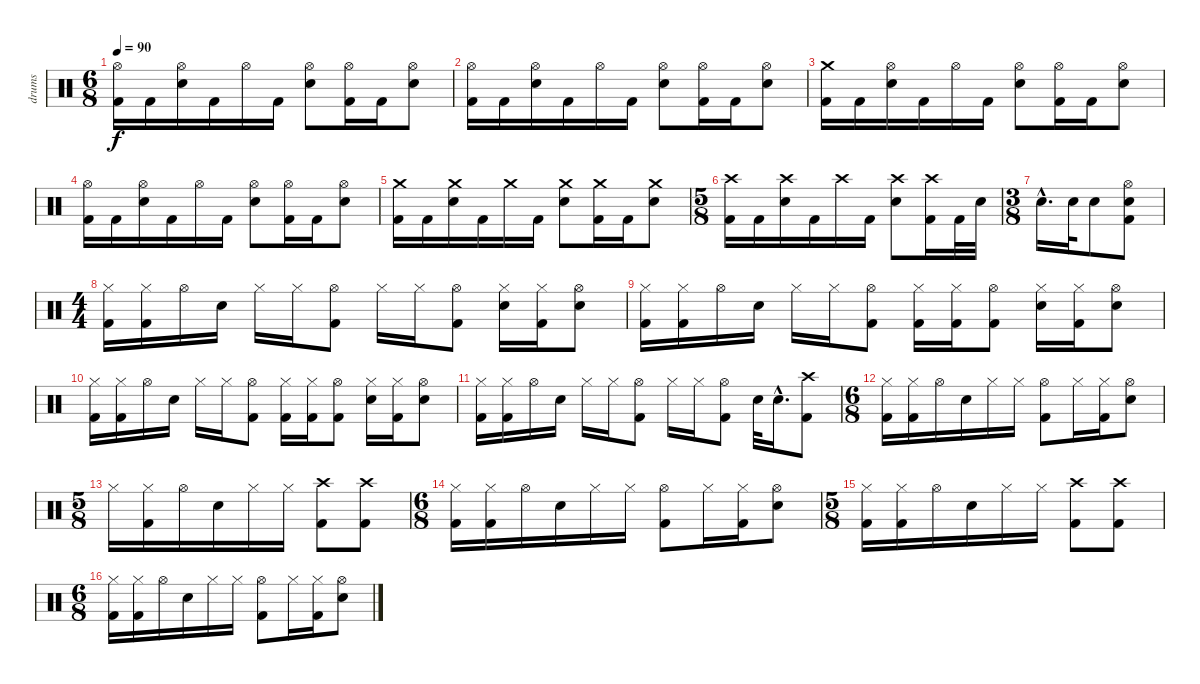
\track ("drums" "drums") {instrument percussion}
\staff {score}
\articulation defaults
\ts (6 8)
\tempo 90
\clef neutral
\ks c
("Hi-Hat (open)" "Kick (hit) 2").16{dy f} "Kick (hit) 2".16 ("Hi-Hat (open)" "Electric Snare (hit)").16 "Kick (hit) 2".16 "Hi-Hat (open)".16 "Kick (hit) 2".16 ("Hi-Hat (open)" "Electric Snare (hit)").8 ("Hi-Hat (open)" "Kick (hit) 2").16 "Kick (hit) 2".16 ("Hi-Hat (open)" "Electric Snare (hit)").8 |
("Hi-Hat (open)" "Kick (hit) 2").16 "Kick (hit) 2".16 ("Hi-Hat (open)" "Electric Snare (hit)").16 "Kick (hit) 2".16 "Hi-Hat (open)".16 "Kick (hit) 2".16 ("Hi-Hat (open)" "Electric Snare (hit)").8 ("Hi-Hat (open)" "Kick (hit) 2").16 "Kick (hit) 2".16 ("Hi-Hat (open)" "Electric Snare (hit)").8 |
("Crash medium (hit)" "Kick (hit) 2").16 "Kick (hit) 2".16 ("Hi-Hat (open)" "Electric Snare (hit)").16 "Kick (hit) 2".16 "Hi-Hat (open)".16 "Kick (hit) 2".16 ("Hi-Hat (open)" "Electric Snare (hit)").8 ("Hi-Hat (open)" "Kick (hit) 2").16 "Kick (hit) 2".16 ("Hi-Hat (open)" "Electric Snare (hit)").8 |
("Hi-Hat (open)" "Kick (hit) 2").16 "Kick (hit) 2".16 ("Hi-Hat (open)" "Electric Snare (hit)").16 "Kick (hit) 2".16 "Hi-Hat (open)".16 "Kick (hit) 2".16 ("Hi-Hat (open)" "Electric Snare (hit)").8 ("Hi-Hat (open)" "Kick (hit) 2").16 "Kick (hit) 2".16 ("Hi-Hat (open)" "Electric Snare (hit)").8 |
("Crash medium (hit)" "Kick (hit) 2").16 "Kick (hit) 2".16 ("Crash medium (hit)" "Electric Snare (hit)").16 "Kick (hit) 2".16 "Crash medium (hit)".16 "Kick (hit) 2".16 ("Crash medium (hit)" "Electric Snare (hit)").8 ("Crash medium (hit)" "Kick (hit) 2").16 "Kick (hit) 2".16 ("Crash medium (hit)" "Electric Snare (hit)").8 |
\ts (5 8)
("Crash high (hit)" "Kick (hit) 2").16 "Kick (hit) 2".16 ("Crash high (hit)" "Electric Snare (hit)").16 "Kick (hit) 2".16 "Crash high (hit)".16 "Kick (hit) 2".16 ("Crash high (hit)" "Electric Snare (hit)").8 ("Crash high (hit)" "Kick (hit) 2").16 "Kick (hit) 2".32 "Electric Snare (hit)".32 |
\ts (3 8)
"Electric Snare (hit)"{hac}.16{d} "Electric Snare (hit)".32 "Electric Snare (hit)".8 ("Hi-Hat (open)" "Electric Snare (hit)" "Kick (hit) 2").8 |
\ts (4 4)
("Hi-Hat (closed)" "Kick (hit) 2").16 ("Hi-Hat (closed)" "Kick (hit) 2").16 "Hi-Hat (open)".16 "Electric Snare (hit)".16 "Hi-Hat (closed)".16 "Hi-Hat (closed)".16 ("Hi-Hat (open)" "Kick (hit) 2").8 "Hi-Hat (closed)".16 "Hi-Hat (closed)".16 ("Hi-Hat (open)" "Kick (hit) 2").8 ("Hi-Hat (closed)" "Electric Snare (hit)").16 ("Hi-Hat (closed)" "Kick (hit) 2").16 ("Hi-Hat (open)" "Electric Snare (hit)").8 |
("Hi-Hat (closed)" "Kick (hit) 2").16 ("Hi-Hat (closed)" "Kick (hit) 2").16 "Hi-Hat (open)".16 "Electric Snare (hit)".16 "Hi-Hat (closed)".16 "Hi-Hat (closed)".16 ("Hi-Hat (open)" "Kick (hit) 2").8 ("Hi-Hat (closed)" "Kick (hit) 2").16 ("Hi-Hat (closed)" "Kick (hit) 2").16 ("Hi-Hat (open)" "Kick (hit) 2").8 ("Hi-Hat (closed)" "Electric Snare (hit)").16 ("Hi-Hat (closed)" "Kick (hit) 2").16 ("Hi-Hat (open)" "Electric Snare (hit)").8 |
("Hi-Hat (closed)" "Kick (hit) 2").16 ("Hi-Hat (closed)" "Kick (hit) 2").16 "Hi-Hat (open)".16 "Electric Snare (hit)".16 "Hi-Hat (closed)".16 "Hi-Hat (closed)".16 ("Hi-Hat (open)" "Kick (hit) 2").8 ("Hi-Hat (closed)" "Kick (hit) 2").16 ("Hi-Hat (closed)" "Kick (hit) 2").16 ("Hi-Hat (open)" "Kick (hit) 2").8 ("Hi-Hat (closed)" "Electric Snare (hit)").16 ("Hi-Hat (closed)" "Kick (hit) 2").16 ("Hi-Hat (open)" "Electric Snare (hit)").8 |
("Hi-Hat (closed)" "Kick (hit) 2").16 ("Hi-Hat (closed)" "Kick (hit) 2").16 "Hi-Hat (open)".16 "Electric Snare (hit)".16 "Hi-Hat (closed)".16 "Hi-Hat (closed)".16 ("Hi-Hat (open)" "Kick (hit) 2").8 "Hi-Hat (closed)".16 "Hi-Hat (closed)".16 ("Hi-Hat (open)" "Kick (hit) 2").8 "Electric Snare (hit)".32 "Electric Snare (hit)"{hac}.16{d} ("Crash high (hit)" "Kick (hit) 2").8 |
\ts (6 8)
("Hi-Hat (closed)" "Kick (hit) 2").16 ("Hi-Hat (closed)" "Kick (hit) 2").16 "Hi-Hat (open)".16 "Electric Snare (hit)".16 "Hi-Hat (closed)".16 "Hi-Hat (closed)".16 ("Hi-Hat (open)" "Kick (hit) 2").8 "Hi-Hat (closed)".16 ("Hi-Hat (closed)" "Kick (hit) 2").16 ("Hi-Hat (open)" "Electric Snare (hit)").8 |
\ts (5 8)
"Hi-Hat (closed)".16 ("Hi-Hat (closed)" "Kick (hit) 2").16 "Hi-Hat (open)".16 "Electric Snare (hit)".16 "Hi-Hat (closed)".16 "Hi-Hat (closed)".16 ("Crash high (hit)" "Kick (hit) 2").8 ("Crash high (hit)" "Kick (hit) 2").8 |
\ts (6 8)
("Hi-Hat (closed)" "Kick (hit) 2").16 ("Hi-Hat (closed)" "Kick (hit) 2").16 "Hi-Hat (open)".16 "Electric Snare (hit)".16 "Hi-Hat (closed)".16 "Hi-Hat (closed)".16 ("Hi-Hat (open)" "Kick (hit) 2").8 "Hi-Hat (closed)".16 ("Hi-Hat (closed)" "Kick (hit) 2").16 ("Hi-Hat (open)" "Electric Snare (hit)").8 |
\ts (5 8)
("Hi-Hat (closed)" "Kick (hit) 2").16 ("Hi-Hat (closed)" "Kick (hit) 2").16 "Hi-Hat (open)".16 "Electric Snare (hit)".16 "Hi-Hat (closed)".16 "Hi-Hat (closed)".16 ("Crash high (hit)" "Kick (hit) 2").8 ("Crash high (hit)" "Kick (hit) 2").8 |
\ts (6 8)
("Hi-Hat (closed)" "Kick (hit) 2").16 ("Hi-Hat (closed)" "Kick (hit) 2").16 "Hi-Hat (open)".16 "Electric Snare (hit)".16 "Hi-Hat (closed)".16 "Hi-Hat (closed)".16 ("Hi-Hat (open)" "Kick (hit) 2").8 "Hi-Hat (closed)".16 ("Hi-Hat (closed)" "Kick (hit) 2").16 ("Hi-Hat (open)" "Electric Snare (hit)").8
